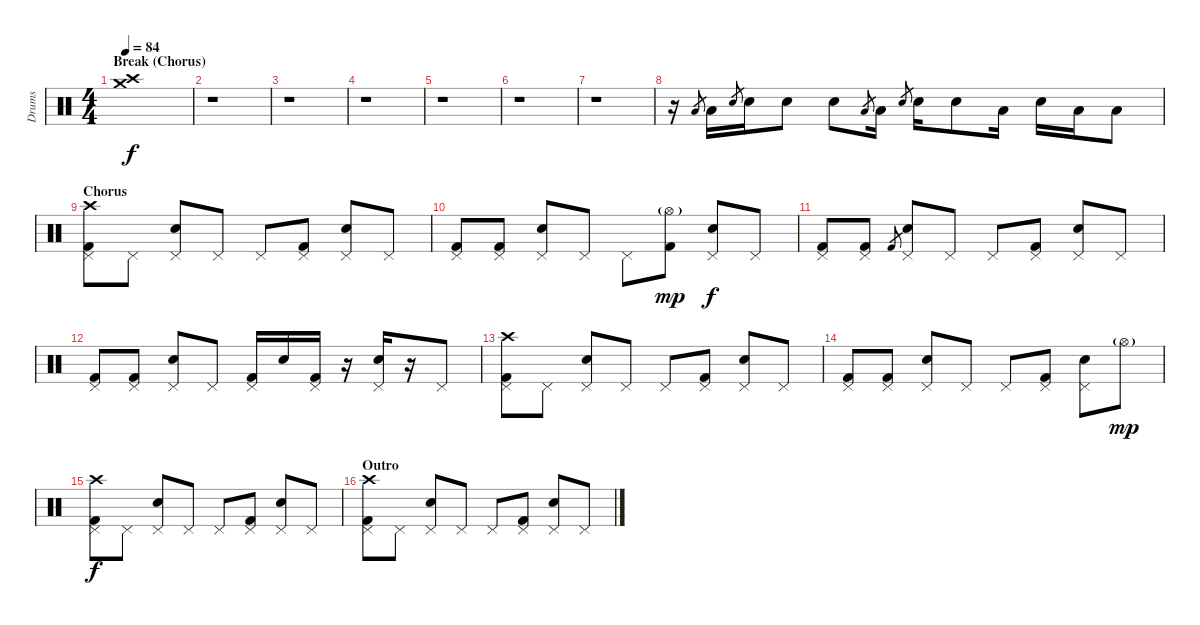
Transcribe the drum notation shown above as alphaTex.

\track ("Drums" "Drums") {instrument percussion}
\staff {score}
\articulation defaults
\ts (4 4)
\section ("" "Break (Chorus)")
\tempo 84
\clef neutral
\ks c
("Crash high (hit)" "Crash medium (hit)").1{dy f} |
r.1 |
r.1 |
r.1 |
r.1 |
r.1 |
r.1 |
r.16 "Low Tom (hit)".8{gr} "Low Tom (hit)".16 "Electric Snare (hit)".8{gr} "Electric Snare (hit)".16 "Electric Snare (hit)".8 "Electric Snare (hit)".8 "Low Tom (hit)".8{gr} "Low Tom (hit)".16 "Electric Snare (hit)".8{gr} "Electric Snare (hit)".16 "Electric Snare (hit)".8 "Low Tom (hit)".16 "Electric Snare (hit)".16 "Low Tom (hit)".16 "Low Tom (hit)".8 |
\section ("" "Chorus")
("Crash high (hit)" "Pedal Hi-Hat (hit)" "Kick (hit) 2").8 "Pedal Hi-Hat (hit)".8 ("Pedal Hi-Hat (hit)" "Electric Snare (hit)").8 "Pedal Hi-Hat (hit)".8 "Pedal Hi-Hat (hit)".8 ("Pedal Hi-Hat (hit)" "Kick (hit) 2").8 ("Pedal Hi-Hat (hit)" "Electric Snare (hit)").8 "Pedal Hi-Hat (hit)".8 |
("Pedal Hi-Hat (hit)" "Kick (hit) 2").8 ("Pedal Hi-Hat (hit)" "Kick (hit) 2").8 ("Pedal Hi-Hat (hit)" "Electric Snare (hit)").8 "Pedal Hi-Hat (hit)".8 "Pedal Hi-Hat (hit)".8 ("Hi-Hat (open)"{g} "Kick (hit) 2").8{dy mp} ("Pedal Hi-Hat (hit)" "Electric Snare (hit)").8{dy f} "Pedal Hi-Hat (hit)".8 |
("Pedal Hi-Hat (hit)" "Kick (hit) 2").8 ("Pedal Hi-Hat (hit)" "Kick (hit) 2").8 "Kick (hit) 2".8{gr} ("Pedal Hi-Hat (hit)" "Electric Snare (hit)").8 "Pedal Hi-Hat (hit)".8 "Pedal Hi-Hat (hit)".8 ("Pedal Hi-Hat (hit)" "Kick (hit) 2").8 ("Pedal Hi-Hat (hit)" "Electric Snare (hit)").8 "Pedal Hi-Hat (hit)".8 |
("Pedal Hi-Hat (hit)" "Kick (hit) 2").8 ("Pedal Hi-Hat (hit)" "Kick (hit) 2").8 ("Pedal Hi-Hat (hit)" "Electric Snare (hit)").8 "Pedal Hi-Hat (hit)".8 ("Pedal Hi-Hat (hit)" "Kick (hit) 2").16 "Electric Snare (hit)".16 ("Pedal Hi-Hat (hit)" "Kick (hit) 2").16 r.16 ("Pedal Hi-Hat (hit)" "Electric Snare (hit)").16 r.16 "Pedal Hi-Hat (hit)".8 |
("Crash high (hit)" "Pedal Hi-Hat (hit)" "Kick (hit) 2").8 "Pedal Hi-Hat (hit)".8 ("Pedal Hi-Hat (hit)" "Electric Snare (hit)").8 "Pedal Hi-Hat (hit)".8 "Pedal Hi-Hat (hit)".8 ("Pedal Hi-Hat (hit)" "Kick (hit) 2").8 ("Pedal Hi-Hat (hit)" "Electric Snare (hit)").8 "Pedal Hi-Hat (hit)".8 |
("Pedal Hi-Hat (hit)" "Kick (hit) 2").8 ("Pedal Hi-Hat (hit)" "Kick (hit) 2").8 ("Pedal Hi-Hat (hit)" "Electric Snare (hit)").8 "Pedal Hi-Hat (hit)".8 "Pedal Hi-Hat (hit)".8 ("Pedal Hi-Hat (hit)" "Kick (hit) 2").8 ("Pedal Hi-Hat (hit)" "Electric Snare (hit)").8 "Hi-Hat (open)"{g}.8{dy mp} |
("Crash high (hit)" "Pedal Hi-Hat (hit)" "Kick (hit) 2").8{dy f} "Pedal Hi-Hat (hit)".8 ("Pedal Hi-Hat (hit)" "Electric Snare (hit)").8 "Pedal Hi-Hat (hit)".8 "Pedal Hi-Hat (hit)".8 ("Pedal Hi-Hat (hit)" "Kick (hit) 2").8 ("Pedal Hi-Hat (hit)" "Electric Snare (hit)").8 "Pedal Hi-Hat (hit)".8 |
\section ("" "Outro")
("Crash high (hit)" "Pedal Hi-Hat (hit)" "Kick (hit) 2").8 "Pedal Hi-Hat (hit)".8 ("Pedal Hi-Hat (hit)" "Electric Snare (hit)").8 "Pedal Hi-Hat (hit)".8 "Pedal Hi-Hat (hit)".8 ("Pedal Hi-Hat (hit)" "Kick (hit) 2").8 ("Pedal Hi-Hat (hit)" "Electric Snare (hit)").8 "Pedal Hi-Hat (hit)".8
